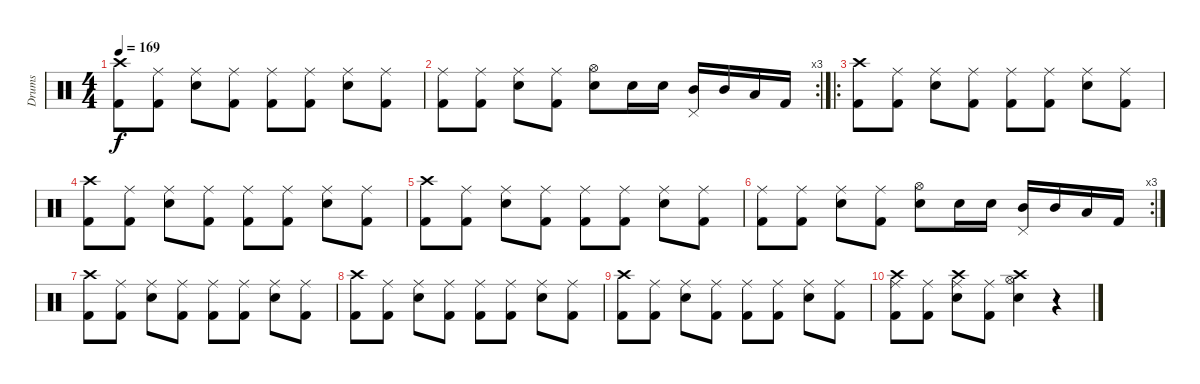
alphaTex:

\track ("Drums" "Drums") {instrument percussion}
\staff {score}
\articulation defaults
\ts (4 4)
\tempo 169
\clef neutral
\ks c
("Crash high (hit)" "Kick (hit) 2").8{dy f} ("Ride (middle)" "Kick (hit) 2").8 ("Ride (middle)" "Snare (hit) 2").8 ("Ride (middle)" "Kick (hit) 2").8 ("Ride (middle)" "Kick (hit) 2").8 ("Ride (middle)" "Kick (hit) 2").8 ("Ride (middle)" "Snare (hit) 2").8 ("Ride (middle)" "Kick (hit) 2").8 |
\rc 3
("Ride (middle)" "Kick (hit) 2").8 ("Ride (middle)" "Kick (hit) 2").8 ("Ride (middle)" "Snare (hit) 2").8 ("Ride (middle)" "Kick (hit) 2").8 ("Hi-Hat (open)" "Snare (hit) 2").8 "Snare (hit) 2".16 "Snare (hit) 2".16 ("Pedal Hi-Hat (hit)" "Mid Tom (hit)").16 "Mid Tom (hit)".16 "Low Floor Tom (hit)".16 "Kick (hit) 2".16 |
\ro
("Crash high (hit)" "Kick (hit) 2").8 ("Ride (middle)" "Kick (hit) 2").8 ("Ride (middle)" "Snare (hit) 2").8 ("Ride (middle)" "Kick (hit) 2").8 ("Ride (middle)" "Kick (hit) 2").8 ("Ride (middle)" "Kick (hit) 2").8 ("Ride (middle)" "Snare (hit) 2").8 ("Ride (middle)" "Kick (hit) 2").8 |
("Crash high (hit)" "Kick (hit) 2").8 ("Ride (middle)" "Kick (hit) 2").8 ("Ride (middle)" "Snare (hit) 2").8 ("Ride (middle)" "Kick (hit) 2").8 ("Ride (middle)" "Kick (hit) 2").8 ("Ride (middle)" "Kick (hit) 2").8 ("Ride (middle)" "Snare (hit) 2").8 ("Ride (middle)" "Kick (hit) 2").8 |
("Crash high (hit)" "Kick (hit) 2").8 ("Ride (middle)" "Kick (hit) 2").8 ("Ride (middle)" "Snare (hit) 2").8 ("Ride (middle)" "Kick (hit) 2").8 ("Ride (middle)" "Kick (hit) 2").8 ("Ride (middle)" "Kick (hit) 2").8 ("Ride (middle)" "Snare (hit) 2").8 ("Ride (middle)" "Kick (hit) 2").8 |
\rc 3
("Ride (middle)" "Kick (hit) 2").8 ("Ride (middle)" "Kick (hit) 2").8 ("Ride (middle)" "Snare (hit) 2").8 ("Ride (middle)" "Kick (hit) 2").8 ("Hi-Hat (open)" "Snare (hit) 2").8 "Snare (hit) 2".16 "Snare (hit) 2".16 ("Pedal Hi-Hat (hit)" "Mid Tom (hit)").16 "Mid Tom (hit)".16 "Low Floor Tom (hit)".16 "Kick (hit) 2".16 |
("Crash high (hit)" "Kick (hit) 2").8 ("Ride (middle)" "Kick (hit) 2").8 ("Ride (middle)" "Snare (hit) 2").8 ("Ride (middle)" "Kick (hit) 2").8 ("Ride (middle)" "Kick (hit) 2").8 ("Ride (middle)" "Kick (hit) 2").8 ("Ride (middle)" "Snare (hit) 2").8 ("Ride (middle)" "Kick (hit) 2").8 |
("Crash high (hit)" "Kick (hit) 2").8 ("Ride (middle)" "Kick (hit) 2").8 ("Ride (middle)" "Snare (hit) 2").8 ("Ride (middle)" "Kick (hit) 2").8 ("Ride (middle)" "Kick (hit) 2").8 ("Ride (middle)" "Kick (hit) 2").8 ("Ride (middle)" "Snare (hit) 2").8 ("Ride (middle)" "Kick (hit) 2").8 |
("Crash high (hit)" "Kick (hit) 2").8 ("Ride (middle)" "Kick (hit) 2").8 ("Ride (middle)" "Snare (hit) 2").8 ("Ride (middle)" "Kick (hit) 2").8 ("Ride (middle)" "Kick (hit) 2").8 ("Ride (middle)" "Kick (hit) 2").8 ("Ride (middle)" "Snare (hit) 2").8 ("Ride (middle)" "Kick (hit) 2").8 |
("Crash high (hit)" "Ride (middle)" "Kick (hit) 2").8 ("Ride (middle)" "Kick (hit) 2").8 ("Crash high (hit)" "Ride (middle)" "Snare (hit) 2").8 ("Ride (middle)" "Kick (hit) 2").8 ("Crash high (hit)" "Hi-Hat (open)" "Snare (hit) 2").4 r.4
